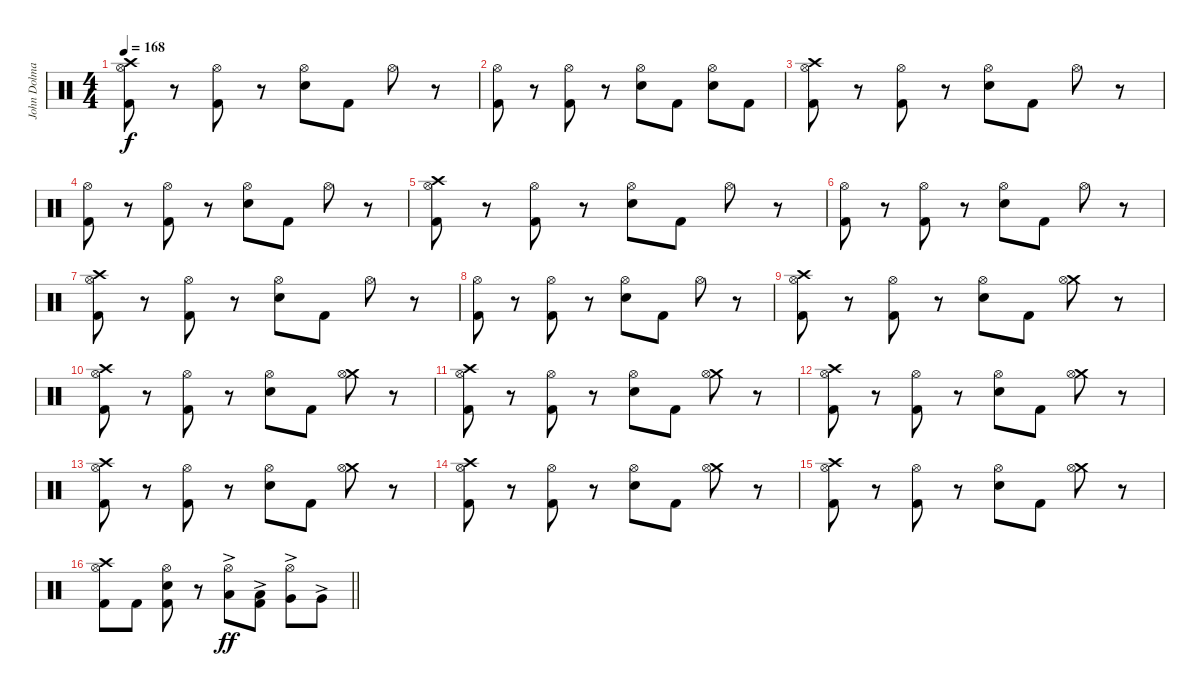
\track ("John Dolmayan" "John Dolma") {instrument percussion}
\staff {score}
\articulation defaults
\ts (4 4)
\tempo 168
\clef neutral
\ks c
("Crash high (hit)" "Hi-Hat (open)" "Kick (hit) 2").8{dy f} r.8 ("Hi-Hat (open)" "Kick (hit) 2").8 r.8 ("Hi-Hat (open)" "Electric Snare (hit)").8 "Kick (hit) 2".8 "Hi-Hat (open)".8 r.8 |
("Hi-Hat (open)" "Kick (hit) 2").8 r.8 ("Hi-Hat (open)" "Kick (hit) 2").8 r.8 ("Hi-Hat (open)" "Electric Snare (hit)").8 "Kick (hit) 2".8 ("Hi-Hat (open)" "Electric Snare (hit)").8 "Kick (hit) 2".8 |
("Crash high (hit)" "Hi-Hat (open)" "Kick (hit) 2").8 r.8 ("Hi-Hat (open)" "Kick (hit) 2").8 r.8 ("Hi-Hat (open)" "Electric Snare (hit)").8 "Kick (hit) 2".8 "Hi-Hat (open)".8 r.8 |
("Hi-Hat (open)" "Kick (hit) 2").8 r.8 ("Hi-Hat (open)" "Kick (hit) 2").8 r.8 ("Hi-Hat (open)" "Electric Snare (hit)").8 "Kick (hit) 2".8 "Hi-Hat (open)".8 r.8 |
("Crash high (hit)" "Hi-Hat (open)" "Kick (hit) 2").8 r.8 ("Hi-Hat (open)" "Kick (hit) 2").8 r.8 ("Hi-Hat (open)" "Electric Snare (hit)").8 "Kick (hit) 2".8 "Hi-Hat (open)".8 r.8 |
("Hi-Hat (open)" "Kick (hit) 2").8 r.8 ("Hi-Hat (open)" "Kick (hit) 2").8 r.8 ("Hi-Hat (open)" "Electric Snare (hit)").8 "Kick (hit) 2".8 "Hi-Hat (open)".8 r.8 |
("Crash high (hit)" "Hi-Hat (open)" "Kick (hit) 2").8 r.8 ("Hi-Hat (open)" "Kick (hit) 2").8 r.8 ("Hi-Hat (open)" "Electric Snare (hit)").8 "Kick (hit) 2".8 "Hi-Hat (open)".8 r.8 |
("Hi-Hat (open)" "Kick (hit) 2").8 r.8 ("Hi-Hat (open)" "Kick (hit) 2").8 r.8 ("Hi-Hat (open)" "Electric Snare (hit)").8 "Kick (hit) 2".8 "Hi-Hat (open)".8 r.8 |
("Crash high (hit)" "Hi-Hat (open)" "Kick (hit) 2").8 r.8 ("Hi-Hat (open)" "Kick (hit) 2").8 r.8 ("Hi-Hat (open)" "Electric Snare (hit)").8 "Kick (hit) 2".8 ("Crash medium (hit)" "Hi-Hat (open)").8 r.8 |
("Crash high (hit)" "Hi-Hat (open)" "Kick (hit) 2").8 r.8 ("Hi-Hat (open)" "Kick (hit) 2").8 r.8 ("Hi-Hat (open)" "Electric Snare (hit)").8 "Kick (hit) 2".8 ("Crash medium (hit)" "Hi-Hat (open)").8 r.8 |
("Crash high (hit)" "Hi-Hat (open)" "Kick (hit) 2").8 r.8 ("Hi-Hat (open)" "Kick (hit) 2").8 r.8 ("Hi-Hat (open)" "Electric Snare (hit)").8 "Kick (hit) 2".8 ("Crash medium (hit)" "Hi-Hat (open)").8 r.8 |
("Crash high (hit)" "Hi-Hat (open)" "Kick (hit) 2").8 r.8 ("Hi-Hat (open)" "Kick (hit) 2").8 r.8 ("Hi-Hat (open)" "Electric Snare (hit)").8 "Kick (hit) 2".8 ("Crash medium (hit)" "Hi-Hat (open)").8 r.8 |
("Crash high (hit)" "Hi-Hat (open)" "Kick (hit) 2").8 r.8 ("Hi-Hat (open)" "Kick (hit) 2").8 r.8 ("Hi-Hat (open)" "Electric Snare (hit)").8 "Kick (hit) 2".8 ("Crash medium (hit)" "Hi-Hat (open)").8 r.8 |
("Crash high (hit)" "Hi-Hat (open)" "Kick (hit) 2").8 r.8 ("Hi-Hat (open)" "Kick (hit) 2").8 r.8 ("Hi-Hat (open)" "Electric Snare (hit)").8 "Kick (hit) 2".8 ("Crash medium (hit)" "Hi-Hat (open)").8 r.8 |
("Crash high (hit)" "Hi-Hat (open)" "Kick (hit) 2").8 r.8 ("Hi-Hat (open)" "Kick (hit) 2").8 r.8 ("Hi-Hat (open)" "Electric Snare (hit)").8 "Kick (hit) 2".8 ("Crash medium (hit)" "Hi-Hat (open)").8 r.8 |
\barLineRight lightlight
("Crash high (hit)" "Hi-Hat (open)" "Kick (hit) 2").8 "Kick (hit) 2".8 ("Hi-Hat (open)" "Electric Snare (hit)" "Kick (hit) 2").8 r.8 ("Hi-Hat (open)" "Low Tom (hit)"{ac}).8{dy ff} ("Low Tom (hit)"{ac} "Kick (hit) 2").8 ("Hi-Hat (open)" "Very Low Tom (hit)"{ac}).8 "Very Low Tom (hit)"{ac}.8
